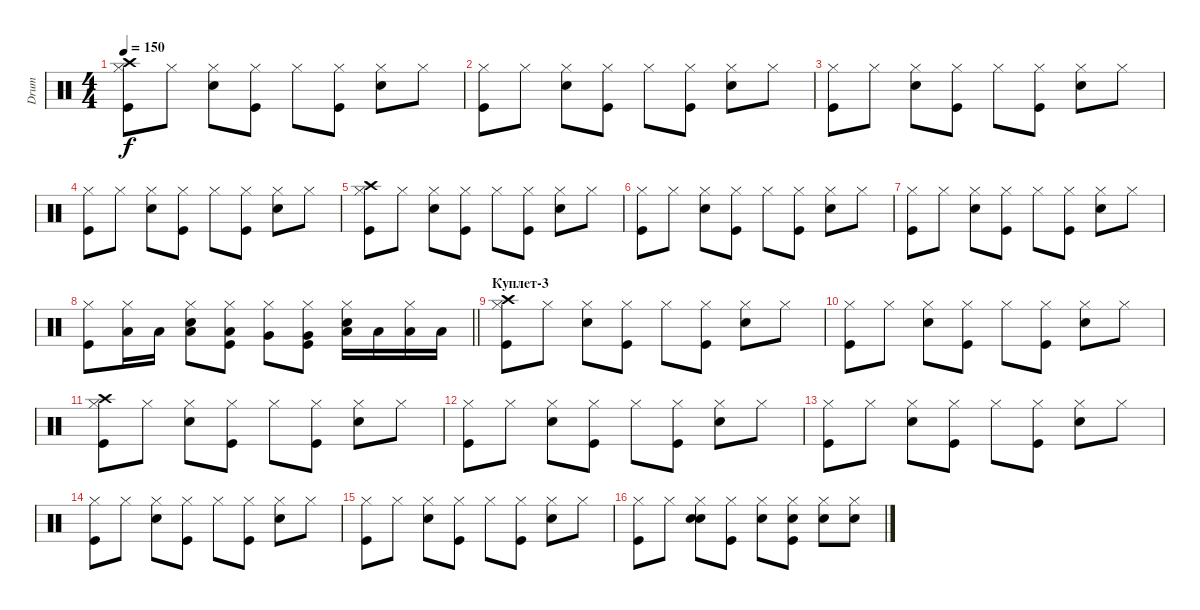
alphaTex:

\track ("Drum" "Drum") {instrument percussion}
\staff {score}
\articulation defaults
\ts (4 4)
\tempo 150
\clef neutral
\ks c
("Kick (hit)" "Hi-Hat (closed)" "Crash high (hit)").8{dy f} "Hi-Hat (closed)".8 ("Snare (hit) 2" "Hi-Hat (closed)").8 ("Kick (hit)" "Hi-Hat (closed)").8 "Hi-Hat (closed)".8 ("Kick (hit)" "Hi-Hat (closed)").8 ("Snare (hit) 2" "Hi-Hat (closed)").8 "Hi-Hat (closed)".8 |
("Kick (hit)" "Hi-Hat (closed)").8 "Hi-Hat (closed)".8 ("Snare (hit) 2" "Hi-Hat (closed)").8 ("Kick (hit)" "Hi-Hat (closed)").8 "Hi-Hat (closed)".8 ("Kick (hit)" "Hi-Hat (closed)").8 ("Snare (hit) 2" "Hi-Hat (closed)").8 "Hi-Hat (closed)".8 |
("Kick (hit)" "Hi-Hat (closed)").8 "Hi-Hat (closed)".8 ("Snare (hit) 2" "Hi-Hat (closed)").8 ("Kick (hit)" "Hi-Hat (closed)").8 "Hi-Hat (closed)".8 ("Kick (hit)" "Hi-Hat (closed)").8 ("Snare (hit) 2" "Hi-Hat (closed)").8 "Hi-Hat (closed)".8 |
("Kick (hit)" "Hi-Hat (closed)").8 "Hi-Hat (closed)".8 ("Snare (hit) 2" "Hi-Hat (closed)").8 ("Kick (hit)" "Hi-Hat (closed)").8 "Hi-Hat (closed)".8 ("Kick (hit)" "Hi-Hat (closed)").8 ("Snare (hit) 2" "Hi-Hat (closed)").8 "Hi-Hat (closed)".8 |
("Kick (hit)" "Hi-Hat (closed)" "Crash high (hit)").8 "Hi-Hat (closed)".8 ("Snare (hit) 2" "Hi-Hat (closed)").8 ("Kick (hit)" "Hi-Hat (closed)").8 "Hi-Hat (closed)".8 ("Kick (hit)" "Hi-Hat (closed)").8 ("Snare (hit) 2" "Hi-Hat (closed)").8 "Hi-Hat (closed)".8 |
("Kick (hit)" "Hi-Hat (closed)").8 "Hi-Hat (closed)".8 ("Snare (hit) 2" "Hi-Hat (closed)").8 ("Kick (hit)" "Hi-Hat (closed)").8 "Hi-Hat (closed)".8 ("Kick (hit)" "Hi-Hat (closed)").8 ("Snare (hit) 2" "Hi-Hat (closed)").8 "Hi-Hat (closed)".8 |
("Kick (hit)" "Hi-Hat (closed)").8 "Hi-Hat (closed)".8 ("Snare (hit) 2" "Hi-Hat (closed)").8 ("Kick (hit)" "Hi-Hat (closed)").8 "Hi-Hat (closed)".8 ("Kick (hit)" "Hi-Hat (closed)").8 ("Snare (hit) 2" "Hi-Hat (closed)").8 "Hi-Hat (closed)".8 |
\barLineRight lightlight
("Kick (hit)" "Hi-Hat (closed)").8 ("Hi-Hat (closed)" "Low Tom (hit)").16 "Low Tom (hit)".16 ("Snare (hit) 2" "Hi-Hat (closed)" "Low Tom (hit)").8 ("Kick (hit)" "Hi-Hat (closed)" "Low Tom (hit)").8 ("Hi-Hat (closed)" "Very Low Tom (hit)").8 ("Kick (hit)" "Hi-Hat (closed)" "Very Low Tom (hit)").8 ("Snare (hit) 2" "Hi-Hat (closed)" "Low Tom (hit)").16 "Low Tom (hit)".16 ("Hi-Hat (closed)" "Low Tom (hit)").16 "Low Tom (hit)".16 |
\section ("" "Куплет-3")
("Kick (hit)" "Hi-Hat (closed)" "Crash high (hit)").8 "Hi-Hat (closed)".8 ("Snare (hit) 2" "Hi-Hat (closed)").8 ("Kick (hit)" "Hi-Hat (closed)").8 "Hi-Hat (closed)".8 ("Kick (hit)" "Hi-Hat (closed)").8 ("Snare (hit) 2" "Hi-Hat (closed)").8 "Hi-Hat (closed)".8 |
("Kick (hit)" "Hi-Hat (closed)").8 "Hi-Hat (closed)".8 ("Snare (hit) 2" "Hi-Hat (closed)").8 ("Kick (hit)" "Hi-Hat (closed)").8 "Hi-Hat (closed)".8 ("Kick (hit)" "Hi-Hat (closed)").8 ("Snare (hit) 2" "Hi-Hat (closed)").8 "Hi-Hat (closed)".8 |
("Kick (hit)" "Hi-Hat (closed)" "Crash high (hit)").8 "Hi-Hat (closed)".8 ("Snare (hit) 2" "Hi-Hat (closed)").8 ("Kick (hit)" "Hi-Hat (closed)").8 "Hi-Hat (closed)".8 ("Kick (hit)" "Hi-Hat (closed)").8 ("Snare (hit) 2" "Hi-Hat (closed)").8 "Hi-Hat (closed)".8 |
("Kick (hit)" "Hi-Hat (closed)").8 "Hi-Hat (closed)".8 ("Snare (hit) 2" "Hi-Hat (closed)").8 ("Kick (hit)" "Hi-Hat (closed)").8 "Hi-Hat (closed)".8 ("Kick (hit)" "Hi-Hat (closed)").8 ("Snare (hit) 2" "Hi-Hat (closed)").8 "Hi-Hat (closed)".8 |
("Kick (hit)" "Hi-Hat (closed)").8 "Hi-Hat (closed)".8 ("Snare (hit) 2" "Hi-Hat (closed)").8 ("Kick (hit)" "Hi-Hat (closed)").8 "Hi-Hat (closed)".8 ("Kick (hit)" "Hi-Hat (closed)").8 ("Snare (hit) 2" "Hi-Hat (closed)").8 "Hi-Hat (closed)".8 |
("Kick (hit)" "Hi-Hat (closed)").8 "Hi-Hat (closed)".8 ("Snare (hit) 2" "Hi-Hat (closed)").8 ("Kick (hit)" "Hi-Hat (closed)").8 "Hi-Hat (closed)".8 ("Kick (hit)" "Hi-Hat (closed)").8 ("Snare (hit) 2" "Hi-Hat (closed)").8 "Hi-Hat (closed)".8 |
("Kick (hit)" "Hi-Hat (closed)").8 "Hi-Hat (closed)".8 ("Snare (hit) 2" "Hi-Hat (closed)").8 ("Kick (hit)" "Hi-Hat (closed)").8 "Hi-Hat (closed)".8 ("Kick (hit)" "Hi-Hat (closed)").8 ("Snare (hit) 2" "Hi-Hat (closed)").8 "Hi-Hat (closed)".8 |
("Kick (hit)" "Hi-Hat (closed)").8 "Hi-Hat (closed)".8 ("Snare (hit) 2" "Hi-Hat (closed)" "Hand Clap (hit)").8 ("Kick (hit)" "Hi-Hat (closed)").8 ("Hi-Hat (closed)" "Hand Clap (hit)").8 ("Kick (hit)" "Hi-Hat (closed)" "Hand Clap (hit)").8 ("Snare (hit) 2" "Hi-Hat (closed)").8 ("Hi-Hat (closed)" "Hand Clap (hit)").8
